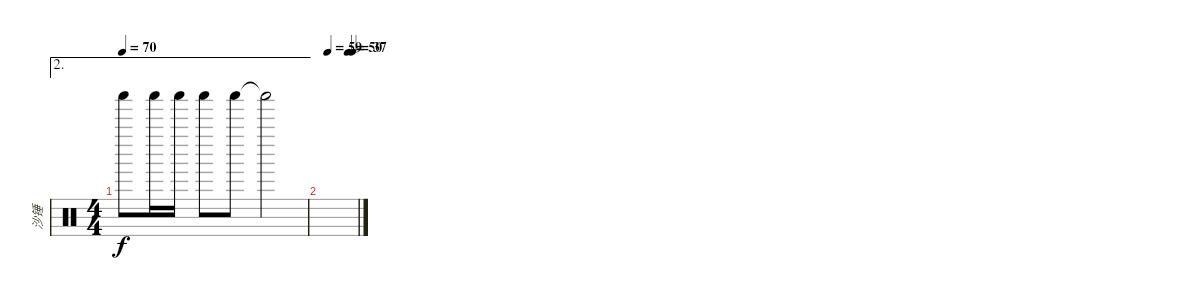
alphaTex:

\track ("沙锤" "沙锤") {instrument percussion}
\staff {score}
\articulation defaults
\ae 2
\ts (4 4)
\tempo 70
\clef neutral
\ks c "Shaker (hit)".8{dy f} "Shaker (hit)".16 "Shaker (hit)".16 "Shaker (hit)".8 "Shaker (hit)".8 "Shaker (hit)"{t}.2
|
\tempo (59 0.1875)
\tempo (50 0.75)
\tempo (37 0.875)
